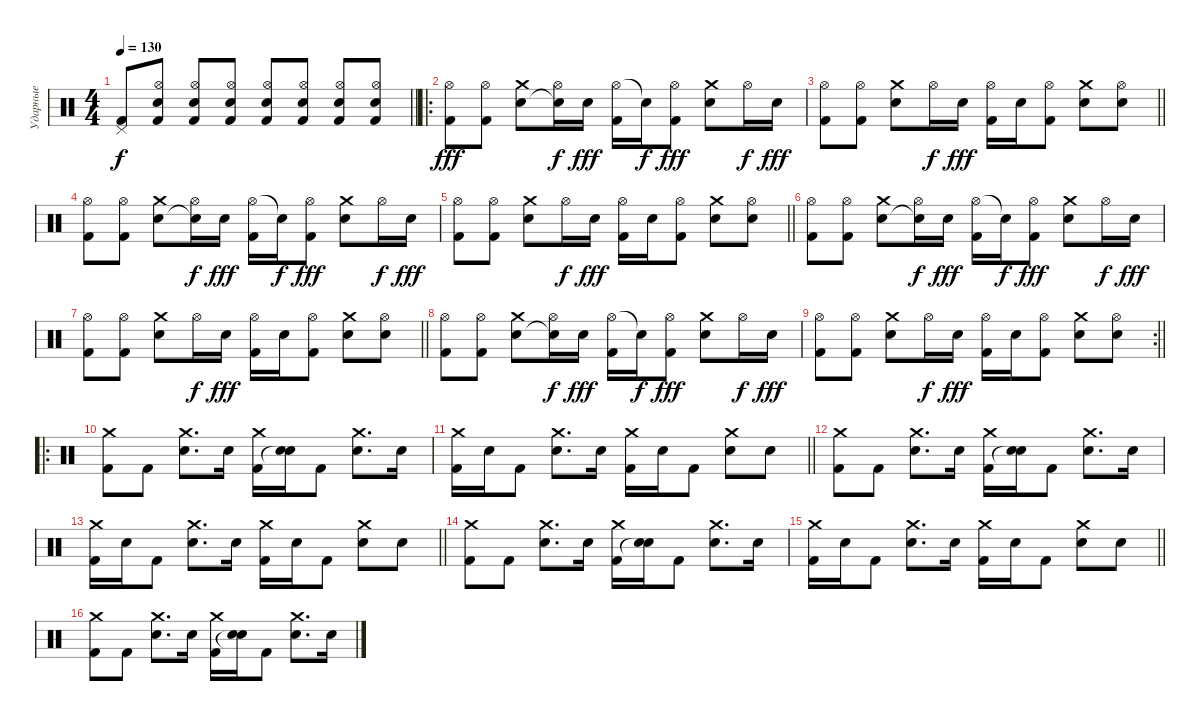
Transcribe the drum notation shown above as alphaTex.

\track ("Ударные" "Ударные") {instrument percussion}
\staff {score}
\articulation defaults
\ts (4 4)
\tempo 130
\clef neutral
\barLineRight lightlight
\ks c
("Pedal Hi-Hat (hit)" "Kick (hit) 2").8{dy f} ("Hi-Hat (open)" "Electric Snare (hit)" "Kick (hit) 2").8 ("Hi-Hat (open)" "Electric Snare (hit)" "Kick (hit) 2").8 ("Hi-Hat (open)" "Electric Snare (hit)" "Kick (hit) 2").8 ("Hi-Hat (open)" "Electric Snare (hit)" "Kick (hit) 2").8 ("Hi-Hat (open)" "Electric Snare (hit)" "Kick (hit) 2").8 ("Hi-Hat (open)" "Electric Snare (hit)" "Kick (hit) 2").8 ("Hi-Hat (open)" "Electric Snare (hit)" "Kick (hit) 2").8 |
\ro
("Hi-Hat (open)" "Kick (hit) 2").8{dy fff} ("Hi-Hat (open)" "Kick (hit) 2").8 ("Crash medium (hit)" "Electric Snare (hit)").8 ("Hi-Hat (open)" "Snare (hit)"{t}).16{dy f} "Electric Snare (hit)".16{dy fff} ("Hi-Hat (open)" "Kick (hit) 2").16 "Snare (hit)"{t}.16{dy f} ("Hi-Hat (open)" "Kick (hit) 2").8{dy fff} ("Crash medium (hit)" "Electric Snare (hit)").8 "Hi-Hat (open)".16{dy f} "Electric Snare (hit)".16{dy fff} |
\barLineRight lightlight
("Hi-Hat (open)" "Kick (hit) 2").8 ("Hi-Hat (open)" "Kick (hit) 2").8 ("Crash medium (hit)" "Electric Snare (hit)").8 "Hi-Hat (open)".16{dy f} "Electric Snare (hit)".16{dy fff} ("Hi-Hat (open)" "Kick (hit) 2").16 "Electric Snare (hit)".16 ("Hi-Hat (open)" "Kick (hit) 2").8 ("Crash medium (hit)" "Electric Snare (hit)").8 ("Hi-Hat (open)" "Electric Snare (hit)").8 |
("Hi-Hat (open)" "Kick (hit) 2").8 ("Hi-Hat (open)" "Kick (hit) 2").8 ("Crash medium (hit)" "Electric Snare (hit)").8 ("Hi-Hat (open)" "Snare (hit)"{t}).16{dy f} "Electric Snare (hit)".16{dy fff} ("Hi-Hat (open)" "Kick (hit) 2").16 "Snare (hit)"{t}.16{dy f} ("Hi-Hat (open)" "Kick (hit) 2").8{dy fff} ("Crash medium (hit)" "Electric Snare (hit)").8 "Hi-Hat (open)".16{dy f} "Electric Snare (hit)".16{dy fff} |
\barLineRight lightlight
("Hi-Hat (open)" "Kick (hit) 2").8 ("Hi-Hat (open)" "Kick (hit) 2").8 ("Crash medium (hit)" "Electric Snare (hit)").8 "Hi-Hat (open)".16{dy f} "Electric Snare (hit)".16{dy fff} ("Hi-Hat (open)" "Kick (hit) 2").16 "Electric Snare (hit)".16 ("Hi-Hat (open)" "Kick (hit) 2").8 ("Crash medium (hit)" "Electric Snare (hit)").8 ("Hi-Hat (open)" "Electric Snare (hit)").8 |
("Hi-Hat (open)" "Kick (hit) 2").8 ("Hi-Hat (open)" "Kick (hit) 2").8 ("Crash medium (hit)" "Electric Snare (hit)").8 ("Hi-Hat (open)" "Snare (hit)"{t}).16{dy f} "Electric Snare (hit)".16{dy fff} ("Hi-Hat (open)" "Kick (hit) 2").16 "Snare (hit)"{t}.16{dy f} ("Hi-Hat (open)" "Kick (hit) 2").8{dy fff} ("Crash medium (hit)" "Electric Snare (hit)").8 "Hi-Hat (open)".16{dy f} "Electric Snare (hit)".16{dy fff} |
\barLineRight lightlight
("Hi-Hat (open)" "Kick (hit) 2").8 ("Hi-Hat (open)" "Kick (hit) 2").8 ("Crash medium (hit)" "Electric Snare (hit)").8 "Hi-Hat (open)".16{dy f} "Electric Snare (hit)".16{dy fff} ("Hi-Hat (open)" "Kick (hit) 2").16 "Electric Snare (hit)".16 ("Hi-Hat (open)" "Kick (hit) 2").8 ("Crash medium (hit)" "Electric Snare (hit)").8 ("Hi-Hat (open)" "Electric Snare (hit)").8 |
("Hi-Hat (open)" "Kick (hit) 2").8 ("Hi-Hat (open)" "Kick (hit) 2").8 ("Crash medium (hit)" "Electric Snare (hit)").8 ("Hi-Hat (open)" "Snare (hit)"{t}).16{dy f} "Electric Snare (hit)".16{dy fff} ("Hi-Hat (open)" "Kick (hit) 2").16 "Snare (hit)"{t}.16{dy f} ("Hi-Hat (open)" "Kick (hit) 2").8{dy fff} ("Crash medium (hit)" "Electric Snare (hit)").8 "Hi-Hat (open)".16{dy f} "Electric Snare (hit)".16{dy fff} |
\rc 2
\barLineRight lightlight
("Hi-Hat (open)" "Kick (hit) 2").8 ("Hi-Hat (open)" "Kick (hit) 2").8 ("Crash medium (hit)" "Electric Snare (hit)").8 "Hi-Hat (open)".16{dy f} "Electric Snare (hit)".16{dy fff} ("Hi-Hat (open)" "Kick (hit) 2").16 "Electric Snare (hit)".16 ("Hi-Hat (open)" "Kick (hit) 2").8 ("Crash medium (hit)" "Electric Snare (hit)").8 ("Hi-Hat (open)" "Electric Snare (hit)").8 |
\ro
("Crash medium (hit)" "Kick (hit) 2").8 "Kick (hit) 2".8 ("Crash medium (hit)" "Electric Snare (hit)").8{d} "Electric Snare (hit)".16 ("Crash medium (hit)" "Kick (hit) 2").16 ("Electric Snare (hit)" "Snare (hit)"{t}).16 "Kick (hit) 2".8 ("Crash medium (hit)" "Electric Snare (hit)").8{d} "Electric Snare (hit)".16 |
\barLineRight lightlight
("Crash medium (hit)" "Kick (hit) 2").16 "Electric Snare (hit)".16 "Kick (hit) 2".8 ("Crash medium (hit)" "Electric Snare (hit)").8{d} "Electric Snare (hit)".16 ("Crash medium (hit)" "Kick (hit) 2").16 "Electric Snare (hit)".16 "Kick (hit) 2".8 ("Crash medium (hit)" "Electric Snare (hit)").8 "Electric Snare (hit)".8 |
("Crash medium (hit)" "Kick (hit) 2").8 "Kick (hit) 2".8 ("Crash medium (hit)" "Electric Snare (hit)").8{d} "Electric Snare (hit)".16 ("Crash medium (hit)" "Kick (hit) 2").16 ("Electric Snare (hit)" "Snare (hit)"{t}).16 "Kick (hit) 2".8 ("Crash medium (hit)" "Electric Snare (hit)").8{d} "Electric Snare (hit)".16 |
\barLineRight lightlight
("Crash medium (hit)" "Kick (hit) 2").16 "Electric Snare (hit)".16 "Kick (hit) 2".8 ("Crash medium (hit)" "Electric Snare (hit)").8{d} "Electric Snare (hit)".16 ("Crash medium (hit)" "Kick (hit) 2").16 "Electric Snare (hit)".16 "Kick (hit) 2".8 ("Crash medium (hit)" "Electric Snare (hit)").8 "Electric Snare (hit)".8 |
("Crash medium (hit)" "Kick (hit) 2").8 "Kick (hit) 2".8 ("Crash medium (hit)" "Electric Snare (hit)").8{d} "Electric Snare (hit)".16 ("Crash medium (hit)" "Kick (hit) 2").16 ("Electric Snare (hit)" "Snare (hit)"{t}).16 "Kick (hit) 2".8 ("Crash medium (hit)" "Electric Snare (hit)").8{d} "Electric Snare (hit)".16 |
\barLineRight lightlight
("Crash medium (hit)" "Kick (hit) 2").16 "Electric Snare (hit)".16 "Kick (hit) 2".8 ("Crash medium (hit)" "Electric Snare (hit)").8{d} "Electric Snare (hit)".16 ("Crash medium (hit)" "Kick (hit) 2").16 "Electric Snare (hit)".16 "Kick (hit) 2".8 ("Crash medium (hit)" "Electric Snare (hit)").8 "Electric Snare (hit)".8 |
("Crash medium (hit)" "Kick (hit) 2").8 "Kick (hit) 2".8 ("Crash medium (hit)" "Electric Snare (hit)").8{d} "Electric Snare (hit)".16 ("Crash medium (hit)" "Kick (hit) 2").16 ("Electric Snare (hit)" "Snare (hit)"{t}).16 "Kick (hit) 2".8 ("Crash medium (hit)" "Electric Snare (hit)").8{d} "Electric Snare (hit)".16
